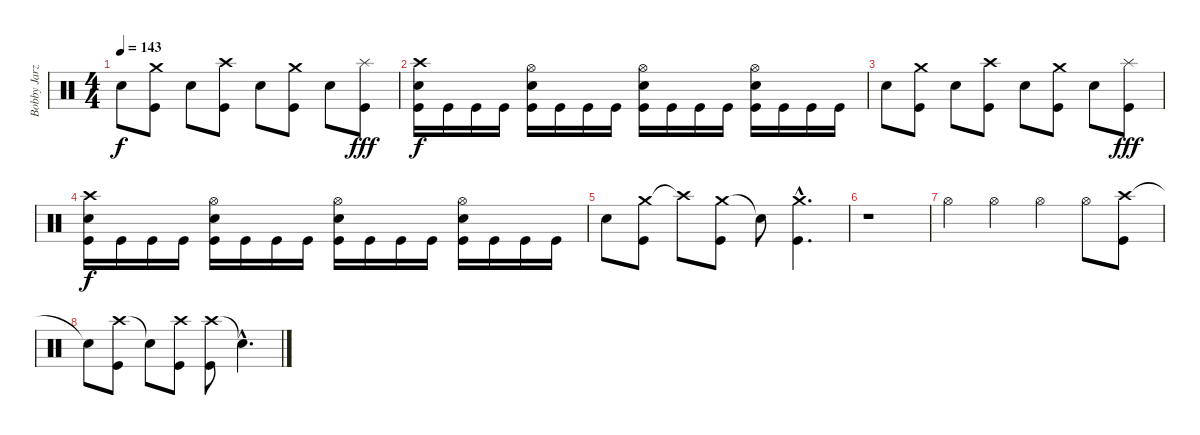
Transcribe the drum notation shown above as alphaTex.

\track ("Bobby Jarzombek" "Bobby Jarz") {instrument percussion}
\staff {score}
\articulation defaults
\ts (4 4)
\tempo 143
\clef neutral
\ks c "Electric Snare (hit)".8{dy f}
("Crash medium (hit)" "Kick (hit)").8 "Electric Snare (hit)".8 ("Crash high (hit)" "Kick (hit)").8 "Electric Snare (hit)".8 ("Crash medium (hit)" "Kick (hit)").8 "Electric Snare (hit)".8 ("Splash (hit)" "Kick (hit)").8{dy fff} |
("Crash high (hit)" "Electric Snare (hit)" "Kick (hit)").16{dy f} "Kick (hit)".16 "Kick (hit)".16 "Kick (hit)".16 ("Hi-Hat (open)" "Electric Snare (hit)" "Kick (hit)").16 "Kick (hit)".16 "Kick (hit)".16 "Kick (hit)".16 ("Hi-Hat (open)" "Electric Snare (hit)" "Kick (hit)").16 "Kick (hit)".16 "Kick (hit)".16 "Kick (hit)".16 ("Hi-Hat (open)" "Electric Snare (hit)" "Kick (hit)").16 "Kick (hit)".16 "Kick (hit)".16 "Kick (hit)".16 |
"Electric Snare (hit)".8 ("Crash medium (hit)" "Kick (hit)").8 "Electric Snare (hit)".8 ("Crash high (hit)" "Kick (hit)").8 "Electric Snare (hit)".8 ("Crash medium (hit)" "Kick (hit)").8 "Electric Snare (hit)".8 ("Splash (hit)" "Kick (hit)").8{dy fff} |
("Crash high (hit)" "Electric Snare (hit)" "Kick (hit)").16{dy f} "Kick (hit)".16 "Kick (hit)".16 "Kick (hit)".16 ("Hi-Hat (open)" "Electric Snare (hit)" "Kick (hit)").16 "Kick (hit)".16 "Kick (hit)".16 "Kick (hit)".16 ("Hi-Hat (open)" "Electric Snare (hit)" "Kick (hit)").16 "Kick (hit)".16 "Kick (hit)".16 "Kick (hit)".16 ("Hi-Hat (open)" "Electric Snare (hit)" "Kick (hit)").16 "Kick (hit)".16 "Kick (hit)".16 "Kick (hit)".16 |
"Electric Snare (hit)".8 ("Crash medium (hit)" "Kick (hit)").8 "Crash high (hit)"{t}.8{volume 0} ("Crash medium (hit)" "Kick (hit)").8{volume 13} "Snare (hit)"{t}.8{volume 0} ("Crash medium (hit)"{hac} "Kick (hit)"{hac}).4{d volume 13} |
r.1 |
"Hi-Hat (open)".4 "Hi-Hat (open)".4 "Hi-Hat (open)".4 "Hi-Hat (open)".8 ("Crash high (hit)" "Kick (hit)").8 |
"Snare (hit)"{t}.8{volume 0} ("Crash high (hit)" "Kick (hit)").8{volume 13} "Snare (hit)"{t}.8{volume 0} ("Crash high (hit)" "Kick (hit)").8{volume 13} ("Crash high (hit)" "Kick (hit)").8 "Snare (hit)"{hac t}.4{d volume 0}
